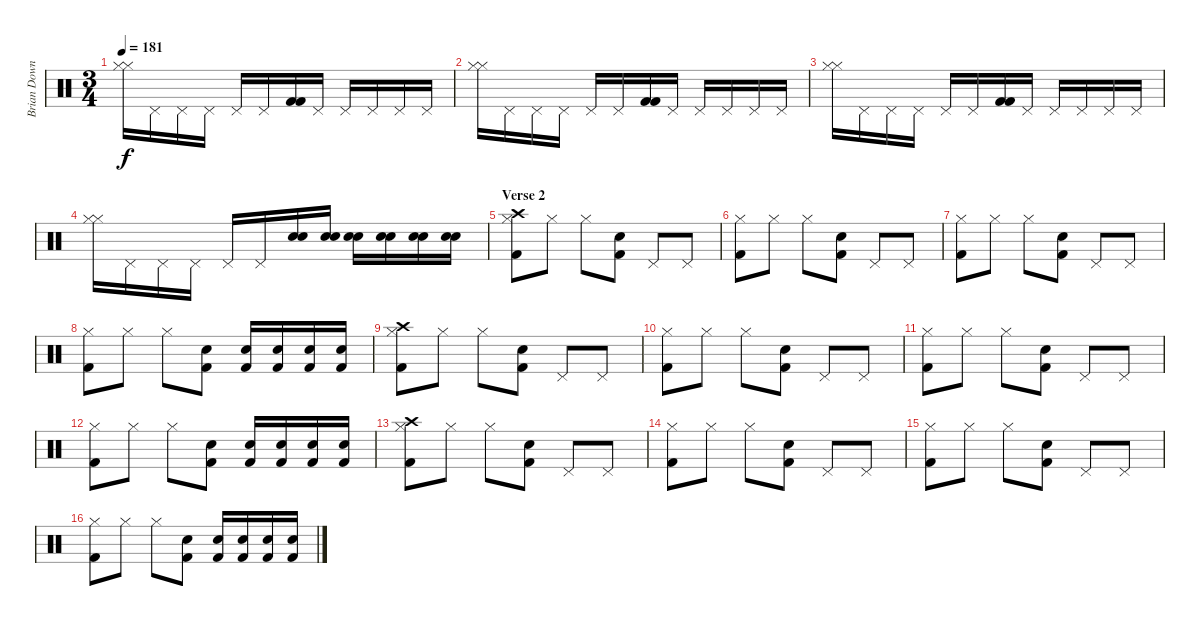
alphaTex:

\track ("Brian Downey" "Brian Down") {instrument percussion}
\staff {score}
\articulation defaults
\ts (3 4)
\tempo 181
\clef neutral
\ks c
("Hi-Hat (closed)" "Hi-Hat (closed)").16{dy f} "Pedal Hi-Hat (hit)".16 "Pedal Hi-Hat (hit)".16 "Pedal Hi-Hat (hit)".16 "Pedal Hi-Hat (hit)".16 "Pedal Hi-Hat (hit)".16 ("Kick (hit) 2" "Kick (hit) 2").16 "Pedal Hi-Hat (hit)".16 "Pedal Hi-Hat (hit)".16 "Pedal Hi-Hat (hit)".16 "Pedal Hi-Hat (hit)".16 "Pedal Hi-Hat (hit)".16 |
("Hi-Hat (closed)" "Hi-Hat (closed)").16 "Pedal Hi-Hat (hit)".16 "Pedal Hi-Hat (hit)".16 "Pedal Hi-Hat (hit)".16 "Pedal Hi-Hat (hit)".16 "Pedal Hi-Hat (hit)".16 ("Kick (hit) 2" "Kick (hit) 2").16 "Pedal Hi-Hat (hit)".16 "Pedal Hi-Hat (hit)".16 "Pedal Hi-Hat (hit)".16 "Pedal Hi-Hat (hit)".16 "Pedal Hi-Hat (hit)".16 |
("Hi-Hat (closed)" "Hi-Hat (closed)").16 "Pedal Hi-Hat (hit)".16 "Pedal Hi-Hat (hit)".16 "Pedal Hi-Hat (hit)".16 "Pedal Hi-Hat (hit)".16 "Pedal Hi-Hat (hit)".16 ("Kick (hit) 2" "Kick (hit) 2").16 "Pedal Hi-Hat (hit)".16 "Pedal Hi-Hat (hit)".16 "Pedal Hi-Hat (hit)".16 "Pedal Hi-Hat (hit)".16 "Pedal Hi-Hat (hit)".16 |
("Hi-Hat (closed)" "Hi-Hat (closed)").16 "Pedal Hi-Hat (hit)".16 "Pedal Hi-Hat (hit)".16 "Pedal Hi-Hat (hit)".16 "Pedal Hi-Hat (hit)".16 "Pedal Hi-Hat (hit)".16 ("Snare (hit) 2" "Snare (hit) 2").16 ("Snare (hit) 2" "Snare (hit) 2").16 ("Snare (hit) 2" "Snare (hit) 2").16 ("Electric Snare (hit)" "Electric Snare (hit)").16 ("Electric Snare (hit)" "Electric Snare (hit)").16 ("Electric Snare (hit)" "Electric Snare (hit)").16 |
\section ("" "Verse 2")
("Crash high (hit)" "Hi-Hat (closed)" "Kick (hit) 2").8 "Hi-Hat (closed)".8 "Hi-Hat (closed)".8 ("Snare (hit) 2" "Kick (hit) 2").8 "Pedal Hi-Hat (hit)".8 "Pedal Hi-Hat (hit)".8 |
("Hi-Hat (closed)" "Kick (hit) 2").8 "Hi-Hat (closed)".8 "Hi-Hat (closed)".8 ("Snare (hit) 2" "Kick (hit) 2").8 "Pedal Hi-Hat (hit)".8 "Pedal Hi-Hat (hit)".8 |
("Hi-Hat (closed)" "Kick (hit) 2").8 "Hi-Hat (closed)".8 "Hi-Hat (closed)".8 ("Snare (hit) 2" "Kick (hit) 2").8 "Pedal Hi-Hat (hit)".8 "Pedal Hi-Hat (hit)".8 |
("Hi-Hat (closed)" "Kick (hit) 2").8 "Hi-Hat (closed)".8 "Hi-Hat (closed)".8 ("Snare (hit) 2" "Kick (hit) 2").8 ("Snare (hit) 2" "Kick (hit) 2").16 ("Snare (hit) 2" "Kick (hit) 2").16 ("Snare (hit) 2" "Kick (hit) 2").16 ("Snare (hit) 2" "Kick (hit) 2").16 |
("Crash high (hit)" "Hi-Hat (closed)" "Kick (hit) 2").8 "Hi-Hat (closed)".8 "Hi-Hat (closed)".8 ("Snare (hit) 2" "Kick (hit) 2").8 "Pedal Hi-Hat (hit)".8 "Pedal Hi-Hat (hit)".8 |
("Hi-Hat (closed)" "Kick (hit) 2").8 "Hi-Hat (closed)".8 "Hi-Hat (closed)".8 ("Snare (hit) 2" "Kick (hit) 2").8 "Pedal Hi-Hat (hit)".8 "Pedal Hi-Hat (hit)".8 |
("Hi-Hat (closed)" "Kick (hit) 2").8 "Hi-Hat (closed)".8 "Hi-Hat (closed)".8 ("Snare (hit) 2" "Kick (hit) 2").8 "Pedal Hi-Hat (hit)".8 "Pedal Hi-Hat (hit)".8 |
("Hi-Hat (closed)" "Kick (hit) 2").8 "Hi-Hat (closed)".8 "Hi-Hat (closed)".8 ("Snare (hit) 2" "Kick (hit) 2").8 ("Snare (hit) 2" "Kick (hit) 2").16 ("Snare (hit) 2" "Kick (hit) 2").16 ("Snare (hit) 2" "Kick (hit) 2").16 ("Snare (hit) 2" "Kick (hit) 2").16 |
("Crash high (hit)" "Hi-Hat (closed)" "Kick (hit) 2").8 "Hi-Hat (closed)".8 "Hi-Hat (closed)".8 ("Snare (hit) 2" "Kick (hit) 2").8 "Pedal Hi-Hat (hit)".8 "Pedal Hi-Hat (hit)".8 |
("Hi-Hat (closed)" "Kick (hit) 2").8 "Hi-Hat (closed)".8 "Hi-Hat (closed)".8 ("Snare (hit) 2" "Kick (hit) 2").8 "Pedal Hi-Hat (hit)".8 "Pedal Hi-Hat (hit)".8 |
("Hi-Hat (closed)" "Kick (hit) 2").8 "Hi-Hat (closed)".8 "Hi-Hat (closed)".8 ("Snare (hit) 2" "Kick (hit) 2").8 "Pedal Hi-Hat (hit)".8 "Pedal Hi-Hat (hit)".8 |
("Hi-Hat (closed)" "Kick (hit) 2").8 "Hi-Hat (closed)".8 "Hi-Hat (closed)".8 ("Snare (hit) 2" "Kick (hit) 2").8 ("Snare (hit) 2" "Kick (hit) 2").16 ("Snare (hit) 2" "Kick (hit) 2").16 ("Snare (hit) 2" "Kick (hit) 2").16 ("Snare (hit) 2" "Kick (hit) 2").16
